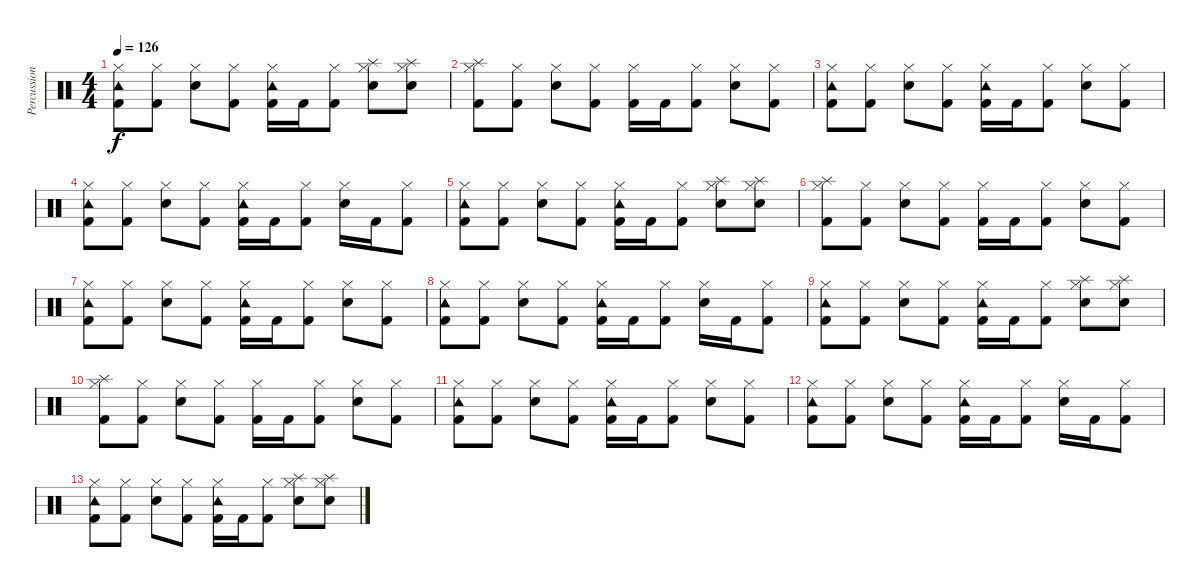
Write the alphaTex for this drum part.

\track ("Percussion" "Percussion") {instrument percussion}
\staff {score}
\articulation defaults
\ts (4 4)
\tempo 126
\clef neutral
\ks c
("Hi-Hat (closed)" "Kick (hit) 2" "Tambourine (hit)").8{dy f} ("Hi-Hat (closed)" "Kick (hit) 2").8 ("Hi-Hat (closed)" "Electric Snare (hit)").8 ("Hi-Hat (closed)" "Kick (hit) 2").8 ("Hi-Hat (closed)" "Kick (hit) 2" "Tambourine (hit)").16 "Kick (hit) 2".16 ("Hi-Hat (closed)" "Kick (hit) 2").8 ("Hi-Hat (closed)" "Electric Snare (hit)" "Splash (hit)").8 ("Hi-Hat (closed)" "Electric Snare (hit)" "Splash (hit)").8 |
("Hi-Hat (closed)" "Kick (hit) 2" "Splash (hit)").8 ("Hi-Hat (closed)" "Kick (hit) 2").8 ("Hi-Hat (closed)" "Electric Snare (hit)").8 ("Hi-Hat (closed)" "Kick (hit) 2").8 ("Hi-Hat (closed)" "Kick (hit) 2").16 "Kick (hit) 2".16 ("Hi-Hat (closed)" "Kick (hit) 2").8 ("Hi-Hat (closed)" "Electric Snare (hit)").8 ("Hi-Hat (closed)" "Kick (hit) 2").8 |
("Hi-Hat (closed)" "Kick (hit) 2" "Tambourine (hit)").8 ("Hi-Hat (closed)" "Kick (hit) 2").8 ("Hi-Hat (closed)" "Electric Snare (hit)").8 ("Hi-Hat (closed)" "Kick (hit) 2").8 ("Hi-Hat (closed)" "Kick (hit) 2" "Tambourine (hit)").16 "Kick (hit) 2".16 ("Hi-Hat (closed)" "Kick (hit) 2").8 ("Hi-Hat (closed)" "Electric Snare (hit)").8 ("Hi-Hat (closed)" "Kick (hit) 2").8 |
("Hi-Hat (closed)" "Kick (hit) 2" "Tambourine (hit)").8 ("Hi-Hat (closed)" "Kick (hit) 2").8 ("Hi-Hat (closed)" "Electric Snare (hit)").8 ("Hi-Hat (closed)" "Kick (hit) 2").8 ("Hi-Hat (closed)" "Kick (hit) 2" "Tambourine (hit)").16 "Kick (hit) 2".16 ("Hi-Hat (closed)" "Kick (hit) 2").8 ("Hi-Hat (closed)" "Electric Snare (hit)").16 "Kick (hit) 2".16 ("Hi-Hat (closed)" "Kick (hit) 2").8 |
("Hi-Hat (closed)" "Kick (hit) 2" "Tambourine (hit)").8 ("Hi-Hat (closed)" "Kick (hit) 2").8 ("Hi-Hat (closed)" "Electric Snare (hit)").8 ("Hi-Hat (closed)" "Kick (hit) 2").8 ("Hi-Hat (closed)" "Kick (hit) 2" "Tambourine (hit)").16 "Kick (hit) 2".16 ("Hi-Hat (closed)" "Kick (hit) 2").8 ("Hi-Hat (closed)" "Electric Snare (hit)" "Splash (hit)").8 ("Hi-Hat (closed)" "Electric Snare (hit)" "Splash (hit)").8 |
("Hi-Hat (closed)" "Kick (hit) 2" "Splash (hit)").8 ("Hi-Hat (closed)" "Kick (hit) 2").8 ("Hi-Hat (closed)" "Electric Snare (hit)").8 ("Hi-Hat (closed)" "Kick (hit) 2").8 ("Hi-Hat (closed)" "Kick (hit) 2").16 "Kick (hit) 2".16 ("Hi-Hat (closed)" "Kick (hit) 2").8 ("Hi-Hat (closed)" "Electric Snare (hit)").8 ("Hi-Hat (closed)" "Kick (hit) 2").8 |
("Hi-Hat (closed)" "Kick (hit) 2" "Tambourine (hit)").8 ("Hi-Hat (closed)" "Kick (hit) 2").8 ("Hi-Hat (closed)" "Electric Snare (hit)").8 ("Hi-Hat (closed)" "Kick (hit) 2").8 ("Hi-Hat (closed)" "Kick (hit) 2" "Tambourine (hit)").16 "Kick (hit) 2".16 ("Hi-Hat (closed)" "Kick (hit) 2").8 ("Hi-Hat (closed)" "Electric Snare (hit)").8 ("Hi-Hat (closed)" "Kick (hit) 2").8 |
("Hi-Hat (closed)" "Kick (hit) 2" "Tambourine (hit)").8 ("Hi-Hat (closed)" "Kick (hit) 2").8 ("Hi-Hat (closed)" "Electric Snare (hit)").8 ("Hi-Hat (closed)" "Kick (hit) 2").8 ("Hi-Hat (closed)" "Kick (hit) 2" "Tambourine (hit)").16 "Kick (hit) 2".16 ("Hi-Hat (closed)" "Kick (hit) 2").8 ("Hi-Hat (closed)" "Electric Snare (hit)").16 "Kick (hit) 2".16 ("Hi-Hat (closed)" "Kick (hit) 2").8 |
("Hi-Hat (closed)" "Kick (hit) 2" "Tambourine (hit)").8 ("Hi-Hat (closed)" "Kick (hit) 2").8 ("Hi-Hat (closed)" "Electric Snare (hit)").8 ("Hi-Hat (closed)" "Kick (hit) 2").8 ("Hi-Hat (closed)" "Kick (hit) 2" "Tambourine (hit)").16 "Kick (hit) 2".16 ("Hi-Hat (closed)" "Kick (hit) 2").8 ("Hi-Hat (closed)" "Electric Snare (hit)" "Splash (hit)").8 ("Hi-Hat (closed)" "Electric Snare (hit)" "Splash (hit)").8 |
("Hi-Hat (closed)" "Kick (hit) 2" "Splash (hit)").8 ("Hi-Hat (closed)" "Kick (hit) 2").8 ("Hi-Hat (closed)" "Electric Snare (hit)").8 ("Hi-Hat (closed)" "Kick (hit) 2").8 ("Hi-Hat (closed)" "Kick (hit) 2").16 "Kick (hit) 2".16 ("Hi-Hat (closed)" "Kick (hit) 2").8 ("Hi-Hat (closed)" "Electric Snare (hit)").8 ("Hi-Hat (closed)" "Kick (hit) 2").8 |
("Hi-Hat (closed)" "Kick (hit) 2" "Tambourine (hit)").8 ("Hi-Hat (closed)" "Kick (hit) 2").8 ("Hi-Hat (closed)" "Electric Snare (hit)").8 ("Hi-Hat (closed)" "Kick (hit) 2").8 ("Hi-Hat (closed)" "Kick (hit) 2" "Tambourine (hit)").16 "Kick (hit) 2".16 ("Hi-Hat (closed)" "Kick (hit) 2").8 ("Hi-Hat (closed)" "Electric Snare (hit)").8 ("Hi-Hat (closed)" "Kick (hit) 2").8 |
("Hi-Hat (closed)" "Kick (hit) 2" "Tambourine (hit)").8 ("Hi-Hat (closed)" "Kick (hit) 2").8 ("Hi-Hat (closed)" "Electric Snare (hit)").8 ("Hi-Hat (closed)" "Kick (hit) 2").8 ("Hi-Hat (closed)" "Kick (hit) 2" "Tambourine (hit)").16 "Kick (hit) 2".16 ("Hi-Hat (closed)" "Kick (hit) 2").8 ("Hi-Hat (closed)" "Electric Snare (hit)").16 "Kick (hit) 2".16 ("Hi-Hat (closed)" "Kick (hit) 2").8 |
("Hi-Hat (closed)" "Kick (hit) 2" "Tambourine (hit)").8 ("Hi-Hat (closed)" "Kick (hit) 2").8 ("Hi-Hat (closed)" "Electric Snare (hit)").8 ("Hi-Hat (closed)" "Kick (hit) 2").8 ("Hi-Hat (closed)" "Kick (hit) 2" "Tambourine (hit)").16 "Kick (hit) 2".16 ("Hi-Hat (closed)" "Kick (hit) 2").8 ("Hi-Hat (closed)" "Electric Snare (hit)" "Splash (hit)").8 ("Hi-Hat (closed)" "Electric Snare (hit)" "Splash (hit)").8
